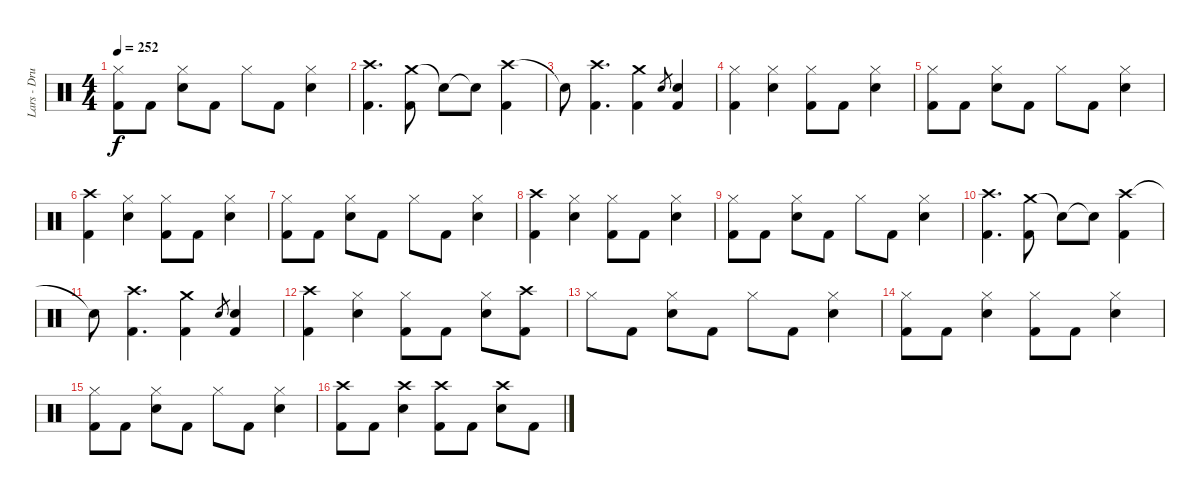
\track ("Lars - Drums" "Lars - Dru") {instrument percussion}
\staff {score}
\articulation defaults
\ts (4 4)
\tempo 252
\clef neutral
\ks c
("Hi-Hat (closed)" "Kick (hit) 2").8{dy f} "Kick (hit) 2".8 ("Hi-Hat (closed)" "Electric Snare (hit)").8 "Kick (hit) 2".8 "Hi-Hat (closed)".8 "Kick (hit) 2".8 ("Hi-Hat (closed)" "Electric Snare (hit)").4 |
("Crash high (hit)" "Kick (hit) 2").4{d} ("Crash medium (hit)" "Kick (hit) 2").8 "Snare (hit)"{t}.8 "Snare (hit)"{t}.8 ("Crash high (hit)" "Kick (hit) 2").4 |
"Snare (hit)"{t}.8 ("Crash high (hit)" "Kick (hit) 2").4{d} ("Crash medium (hit)" "Kick (hit) 2").4 "Electric Snare (hit)".8{gr} ("Electric Snare (hit)" "Kick (hit) 2").4 |
("Hi-Hat (closed)" "Kick (hit) 2").4 ("Hi-Hat (closed)" "Electric Snare (hit)").4 ("Hi-Hat (closed)" "Kick (hit) 2").8 "Kick (hit) 2".8 ("Hi-Hat (closed)" "Electric Snare (hit)").4 |
("Hi-Hat (closed)" "Kick (hit) 2").8 "Kick (hit) 2".8 ("Hi-Hat (closed)" "Electric Snare (hit)").8 "Kick (hit) 2".8 "Hi-Hat (closed)".8 "Kick (hit) 2".8 ("Hi-Hat (closed)" "Electric Snare (hit)").4 |
("Crash high (hit)" "Kick (hit) 2").4 ("Hi-Hat (closed)" "Electric Snare (hit)").4 ("Hi-Hat (closed)" "Kick (hit) 2").8 "Kick (hit) 2".8 ("Hi-Hat (closed)" "Electric Snare (hit)").4 |
("Hi-Hat (closed)" "Kick (hit) 2").8 "Kick (hit) 2".8 ("Hi-Hat (closed)" "Electric Snare (hit)").8 "Kick (hit) 2".8 "Hi-Hat (closed)".8 "Kick (hit) 2".8 ("Hi-Hat (closed)" "Electric Snare (hit)").4 |
("Crash high (hit)" "Kick (hit) 2").4 ("Hi-Hat (closed)" "Electric Snare (hit)").4 ("Hi-Hat (closed)" "Kick (hit) 2").8 "Kick (hit) 2".8 ("Hi-Hat (closed)" "Electric Snare (hit)").4 |
("Hi-Hat (closed)" "Kick (hit) 2").8 "Kick (hit) 2".8 ("Hi-Hat (closed)" "Electric Snare (hit)").8 "Kick (hit) 2".8 "Hi-Hat (closed)".8 "Kick (hit) 2".8 ("Hi-Hat (closed)" "Electric Snare (hit)").4 |
("Crash high (hit)" "Kick (hit) 2").4{d} ("Crash medium (hit)" "Kick (hit) 2").8 "Snare (hit)"{t}.8 "Snare (hit)"{t}.8 ("Crash high (hit)" "Kick (hit) 2").4 |
"Snare (hit)"{t}.8 ("Crash high (hit)" "Kick (hit) 2").4{d} ("Crash medium (hit)" "Kick (hit) 2").4 "Electric Snare (hit)".8{gr} ("Electric Snare (hit)" "Kick (hit) 2").4 |
("Crash high (hit)" "Kick (hit) 2").4 ("Hi-Hat (closed)" "Electric Snare (hit)").4 ("Hi-Hat (closed)" "Kick (hit) 2").8 "Kick (hit) 2".8 ("Hi-Hat (closed)" "Electric Snare (hit)").8 ("Crash high (hit)" "Kick (hit) 2").8 |
"Hi-Hat (closed)".8 "Kick (hit) 2".8 ("Hi-Hat (closed)" "Electric Snare (hit)").8 "Kick (hit) 2".8 "Hi-Hat (closed)".8 "Kick (hit) 2".8 ("Hi-Hat (closed)" "Electric Snare (hit)").4 |
("Hi-Hat (closed)" "Kick (hit) 2").8 "Kick (hit) 2".8 ("Hi-Hat (closed)" "Electric Snare (hit)").4 ("Hi-Hat (closed)" "Kick (hit) 2").8 "Kick (hit) 2".8 ("Hi-Hat (closed)" "Electric Snare (hit)").4 |
("Hi-Hat (closed)" "Kick (hit) 2").8 "Kick (hit) 2".8 ("Hi-Hat (closed)" "Electric Snare (hit)").8 "Kick (hit) 2".8 "Hi-Hat (closed)".8 "Kick (hit) 2".8 ("Hi-Hat (closed)" "Electric Snare (hit)").4 |
("Crash high (hit)" "Kick (hit) 2").8 "Kick (hit) 2".8 ("Crash high (hit)" "Electric Snare (hit)").4 ("Crash high (hit)" "Kick (hit) 2").8 "Kick (hit) 2".8 ("Crash high (hit)" "Electric Snare (hit)").8 "Kick (hit) 2".8
